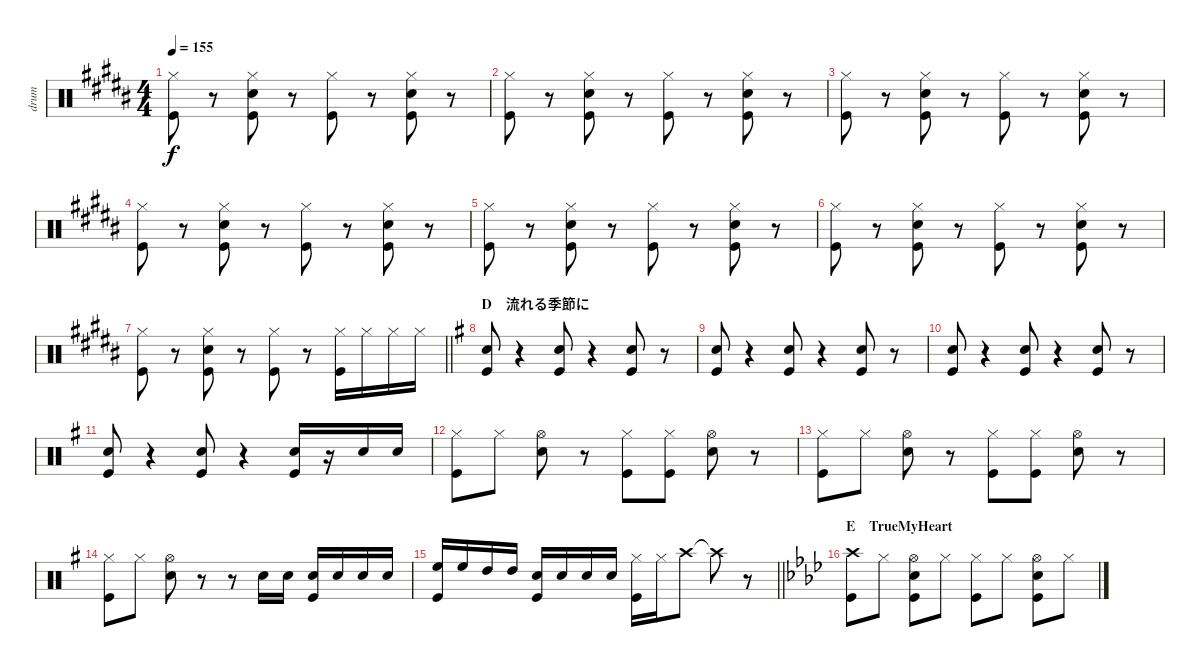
\track ("drum" "drum") {instrument percussion}
\staff {score}
\articulation defaults
\ts (4 4)
\tempo 155
\clef neutral
\ks b
("Hi-Hat (closed)" "Kick (hit)").8{dy f} r.8 ("Hi-Hat (closed)" "Snare (hit) 2" "Kick (hit)").8 r.8 ("Hi-Hat (closed)" "Kick (hit)").8 r.8 ("Hi-Hat (closed)" "Snare (hit) 2" "Kick (hit)").8 r.8 |
("Hi-Hat (closed)" "Kick (hit)").8 r.8 ("Hi-Hat (closed)" "Snare (hit) 2" "Kick (hit)").8 r.8 ("Hi-Hat (closed)" "Kick (hit)").8 r.8 ("Hi-Hat (closed)" "Snare (hit) 2" "Kick (hit)").8 r.8 |
("Hi-Hat (closed)" "Kick (hit)").8 r.8 ("Hi-Hat (closed)" "Snare (hit) 2" "Kick (hit)").8 r.8 ("Hi-Hat (closed)" "Kick (hit)").8 r.8 ("Hi-Hat (closed)" "Snare (hit) 2" "Kick (hit)").8 r.8 |
("Hi-Hat (closed)" "Kick (hit)").8 r.8 ("Hi-Hat (closed)" "Snare (hit) 2" "Kick (hit)").8 r.8 ("Hi-Hat (closed)" "Kick (hit)").8 r.8 ("Hi-Hat (closed)" "Snare (hit) 2" "Kick (hit)").8 r.8 |
("Hi-Hat (closed)" "Kick (hit)").8 r.8 ("Hi-Hat (closed)" "Snare (hit) 2" "Kick (hit)").8 r.8 ("Hi-Hat (closed)" "Kick (hit)").8 r.8 ("Hi-Hat (closed)" "Snare (hit) 2" "Kick (hit)").8 r.8 |
("Hi-Hat (closed)" "Kick (hit)").8 r.8 ("Hi-Hat (closed)" "Snare (hit) 2" "Kick (hit)").8 r.8 ("Hi-Hat (closed)" "Kick (hit)").8 r.8 ("Hi-Hat (closed)" "Snare (hit) 2" "Kick (hit)").8 r.8 |
\barLineRight lightlight
("Hi-Hat (closed)" "Kick (hit)").8 r.8 ("Hi-Hat (closed)" "Snare (hit) 2" "Kick (hit)").8 r.8 ("Hi-Hat (closed)" "Kick (hit)").8 r.8 ("Hi-Hat (closed)" "Kick (hit)").16 "Hi-Hat (closed)".16 "Hi-Hat (closed)".16 "Hi-Hat (closed)".16 |
\section ("" "D　流れる季節に")
\ks g
("Snare (hit) 2" "Kick (hit)").8 r.4 ("Snare (hit) 2" "Kick (hit)").8 r.4 ("Snare (hit) 2" "Kick (hit)").8 r.8 |
("Snare (hit) 2" "Kick (hit)").8 r.4 ("Snare (hit) 2" "Kick (hit)").8 r.4 ("Snare (hit) 2" "Kick (hit)").8 r.8 |
("Snare (hit) 2" "Kick (hit)").8 r.4 ("Snare (hit) 2" "Kick (hit)").8 r.4 ("Snare (hit) 2" "Kick (hit)").8 r.8 |
("Snare (hit) 2" "Kick (hit)").8 r.4 ("Snare (hit) 2" "Kick (hit)").8 r.4 ("Snare (hit) 2" "Kick (hit)").16 r.16 "Snare (hit) 2".16 "Snare (hit) 2".16 |
("Hi-Hat (closed)" "Kick (hit)").8 "Hi-Hat (closed)".8 ("Hi-Hat (open)" "Snare (hit) 2").8 r.8 ("Hi-Hat (closed)" "Kick (hit)").8 ("Hi-Hat (closed)" "Kick (hit)").8 ("Hi-Hat (open)" "Snare (hit) 2").8 r.8 |
("Hi-Hat (closed)" "Kick (hit)").8 "Hi-Hat (closed)".8 ("Hi-Hat (open)" "Snare (hit) 2").8 r.8 ("Hi-Hat (closed)" "Kick (hit)").8 ("Hi-Hat (closed)" "Kick (hit)").8 ("Hi-Hat (open)" "Snare (hit) 2").8 r.8 |
("Hi-Hat (closed)" "Kick (hit)").8 "Hi-Hat (closed)".8 ("Hi-Hat (open)" "Snare (hit) 2").8 r.8 r.8 "Snare (hit) 2".16 "Snare (hit) 2".16 ("Snare (hit) 2" "Kick (hit)").16 "Snare (hit) 2".16 "Snare (hit) 2".16 "Snare (hit) 2".16 |
\barLineRight lightlight
("High Floor Tom (hit)" "Kick (hit)").16 "High Floor Tom (hit)".16 "High Tom (hit)".16 "High Tom (hit)".16 ("Snare (hit) 2" "Kick (hit)").16 "Snare (hit) 2".16 "Snare (hit) 2".16 "Snare (hit) 2".16 ("Hi-Hat (closed)" "Kick (hit)").16 "Hi-Hat (closed)".16 "Crash high (hit)".8 "Crash high (hit)"{t}.8 r.8 |
\section ("" "E　TrueMyHeart")
\ks ab
("Crash high (hit)" "Kick (hit)").8 "Hi-Hat (closed)".8 ("Hi-Hat (open)" "Snare (hit) 2" "Kick (hit)").8 "Hi-Hat (closed)".8 ("Hi-Hat (closed)" "Kick (hit)").8 "Hi-Hat (closed)".8 ("Hi-Hat (open)" "Snare (hit) 2" "Kick (hit)").8 "Hi-Hat (closed)".8
